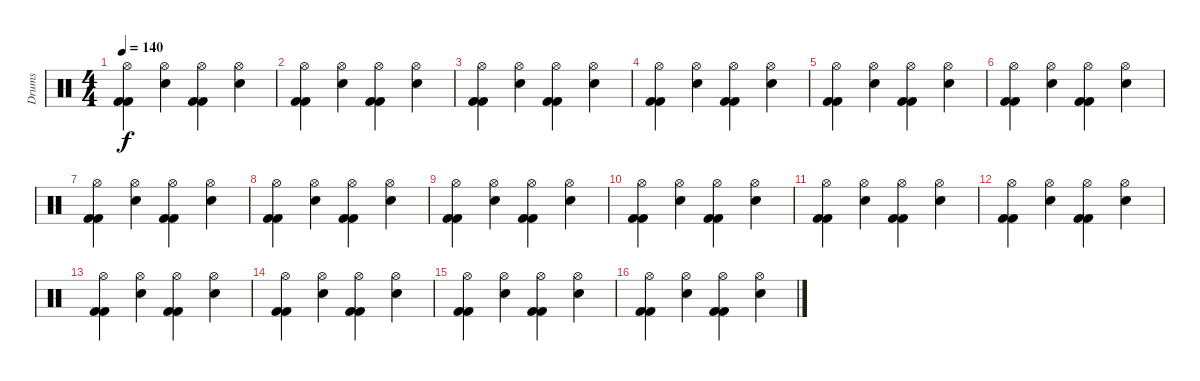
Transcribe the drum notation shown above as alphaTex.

\track ("Drums" "Drums") {instrument percussion}
\staff {score}
\articulation defaults
\ts (4 4)
\tempo 140
\clef neutral
\ks c
("Hi-Hat (open)" "Kick (hit) 2" "Kick (hit) 2").4{dy f} ("Hi-Hat (open)" "Electric Snare (hit)").4 ("Hi-Hat (open)" "Kick (hit) 2" "Kick (hit) 2").4 ("Hi-Hat (open)" "Electric Snare (hit)").4 |
("Hi-Hat (open)" "Kick (hit) 2" "Kick (hit) 2").4 ("Hi-Hat (open)" "Electric Snare (hit)").4 ("Hi-Hat (open)" "Kick (hit) 2" "Kick (hit) 2").4 ("Hi-Hat (open)" "Electric Snare (hit)").4 |
("Hi-Hat (open)" "Kick (hit) 2" "Kick (hit) 2").4 ("Hi-Hat (open)" "Electric Snare (hit)").4 ("Hi-Hat (open)" "Kick (hit) 2" "Kick (hit) 2").4 ("Hi-Hat (open)" "Electric Snare (hit)").4 |
("Hi-Hat (open)" "Kick (hit) 2" "Kick (hit) 2").4 ("Hi-Hat (open)" "Electric Snare (hit)").4 ("Hi-Hat (open)" "Kick (hit) 2" "Kick (hit) 2").4 ("Hi-Hat (open)" "Electric Snare (hit)").4 |
("Hi-Hat (open)" "Kick (hit) 2" "Kick (hit) 2").4 ("Hi-Hat (open)" "Electric Snare (hit)").4 ("Hi-Hat (open)" "Kick (hit) 2" "Kick (hit) 2").4 ("Hi-Hat (open)" "Electric Snare (hit)").4 |
("Hi-Hat (open)" "Kick (hit) 2" "Kick (hit) 2").4 ("Hi-Hat (open)" "Electric Snare (hit)").4 ("Hi-Hat (open)" "Kick (hit) 2" "Kick (hit) 2").4 ("Hi-Hat (open)" "Electric Snare (hit)").4 |
("Hi-Hat (open)" "Kick (hit) 2" "Kick (hit) 2").4 ("Hi-Hat (open)" "Electric Snare (hit)").4 ("Hi-Hat (open)" "Kick (hit) 2" "Kick (hit) 2").4 ("Hi-Hat (open)" "Electric Snare (hit)").4 |
("Hi-Hat (open)" "Kick (hit) 2" "Kick (hit) 2").4 ("Hi-Hat (open)" "Electric Snare (hit)").4 ("Hi-Hat (open)" "Kick (hit) 2" "Kick (hit) 2").4 ("Hi-Hat (open)" "Electric Snare (hit)").4 |
("Hi-Hat (open)" "Kick (hit) 2" "Kick (hit) 2").4 ("Hi-Hat (open)" "Electric Snare (hit)").4 ("Hi-Hat (open)" "Kick (hit) 2" "Kick (hit) 2").4 ("Hi-Hat (open)" "Electric Snare (hit)").4 |
("Hi-Hat (open)" "Kick (hit) 2" "Kick (hit) 2").4 ("Hi-Hat (open)" "Electric Snare (hit)").4 ("Hi-Hat (open)" "Kick (hit) 2" "Kick (hit) 2").4 ("Hi-Hat (open)" "Electric Snare (hit)").4 |
("Hi-Hat (open)" "Kick (hit) 2" "Kick (hit) 2").4 ("Hi-Hat (open)" "Electric Snare (hit)").4 ("Hi-Hat (open)" "Kick (hit) 2" "Kick (hit) 2").4 ("Hi-Hat (open)" "Electric Snare (hit)").4 |
("Hi-Hat (open)" "Kick (hit) 2" "Kick (hit) 2").4 ("Hi-Hat (open)" "Electric Snare (hit)").4 ("Hi-Hat (open)" "Kick (hit) 2" "Kick (hit) 2").4 ("Hi-Hat (open)" "Electric Snare (hit)").4 |
("Hi-Hat (open)" "Kick (hit) 2" "Kick (hit) 2").4 ("Hi-Hat (open)" "Electric Snare (hit)").4 ("Hi-Hat (open)" "Kick (hit) 2" "Kick (hit) 2").4 ("Hi-Hat (open)" "Electric Snare (hit)").4 |
("Hi-Hat (open)" "Kick (hit) 2" "Kick (hit) 2").4 ("Hi-Hat (open)" "Electric Snare (hit)").4 ("Hi-Hat (open)" "Kick (hit) 2" "Kick (hit) 2").4 ("Hi-Hat (open)" "Electric Snare (hit)").4 |
("Hi-Hat (open)" "Kick (hit) 2" "Kick (hit) 2").4 ("Hi-Hat (open)" "Electric Snare (hit)").4 ("Hi-Hat (open)" "Kick (hit) 2" "Kick (hit) 2").4 ("Hi-Hat (open)" "Electric Snare (hit)").4 |
("Hi-Hat (open)" "Kick (hit) 2" "Kick (hit) 2").4 ("Hi-Hat (open)" "Electric Snare (hit)").4 ("Hi-Hat (open)" "Kick (hit) 2" "Kick (hit) 2").4 ("Hi-Hat (open)" "Electric Snare (hit)").4
